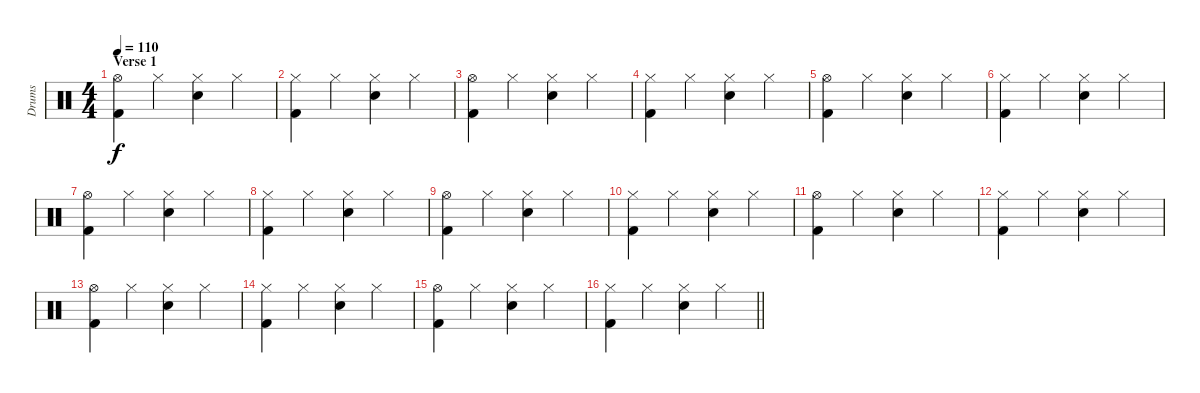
\track ("Drums" "Drums") {instrument percussion}
\staff {score}
\articulation defaults
\ts (4 4)
\section ("" "Verse 1")
\tempo 110
\clef neutral
\ks c
("Kick (hit) 2" "Hi-Hat (open)").4{dy f} "Hi-Hat (closed)".4 ("Electric Snare (hit)" "Hi-Hat (closed)").4 "Hi-Hat (closed)".4 |
("Kick (hit) 2" "Hi-Hat (closed)").4 "Hi-Hat (closed)".4 ("Electric Snare (hit)" "Hi-Hat (closed)").4 "Hi-Hat (closed)".4 |
("Kick (hit) 2" "Hi-Hat (open)").4 "Hi-Hat (closed)".4 ("Electric Snare (hit)" "Hi-Hat (closed)").4 "Hi-Hat (closed)".4 |
("Kick (hit) 2" "Hi-Hat (closed)").4 "Hi-Hat (closed)".4 ("Electric Snare (hit)" "Hi-Hat (closed)").4 "Hi-Hat (closed)".4 |
("Kick (hit) 2" "Hi-Hat (open)").4 "Hi-Hat (closed)".4 ("Electric Snare (hit)" "Hi-Hat (closed)").4 "Hi-Hat (closed)".4 |
("Kick (hit) 2" "Hi-Hat (closed)").4 "Hi-Hat (closed)".4 ("Electric Snare (hit)" "Hi-Hat (closed)").4 "Hi-Hat (closed)".4 |
("Kick (hit) 2" "Hi-Hat (open)").4 "Hi-Hat (closed)".4 ("Electric Snare (hit)" "Hi-Hat (closed)").4 "Hi-Hat (closed)".4 |
("Kick (hit) 2" "Hi-Hat (closed)").4 "Hi-Hat (closed)".4 ("Electric Snare (hit)" "Hi-Hat (closed)").4 "Hi-Hat (closed)".4 |
("Kick (hit) 2" "Hi-Hat (open)").4 "Hi-Hat (closed)".4 ("Electric Snare (hit)" "Hi-Hat (closed)").4 "Hi-Hat (closed)".4 |
("Kick (hit) 2" "Hi-Hat (closed)").4 "Hi-Hat (closed)".4 ("Electric Snare (hit)" "Hi-Hat (closed)").4 "Hi-Hat (closed)".4 |
("Kick (hit) 2" "Hi-Hat (open)").4 "Hi-Hat (closed)".4 ("Electric Snare (hit)" "Hi-Hat (closed)").4 "Hi-Hat (closed)".4 |
("Kick (hit) 2" "Hi-Hat (closed)").4 "Hi-Hat (closed)".4 ("Electric Snare (hit)" "Hi-Hat (closed)").4 "Hi-Hat (closed)".4 |
("Kick (hit) 2" "Hi-Hat (open)").4 "Hi-Hat (closed)".4 ("Electric Snare (hit)" "Hi-Hat (closed)").4 "Hi-Hat (closed)".4 |
("Kick (hit) 2" "Hi-Hat (closed)").4 "Hi-Hat (closed)".4 ("Electric Snare (hit)" "Hi-Hat (closed)").4 "Hi-Hat (closed)".4 |
("Kick (hit) 2" "Hi-Hat (open)").4 "Hi-Hat (closed)".4 ("Electric Snare (hit)" "Hi-Hat (closed)").4 "Hi-Hat (closed)".4 |
\barLineRight lightlight
("Kick (hit) 2" "Hi-Hat (closed)").4 "Hi-Hat (closed)".4 ("Electric Snare (hit)" "Hi-Hat (closed)").4 "Hi-Hat (closed)".4
